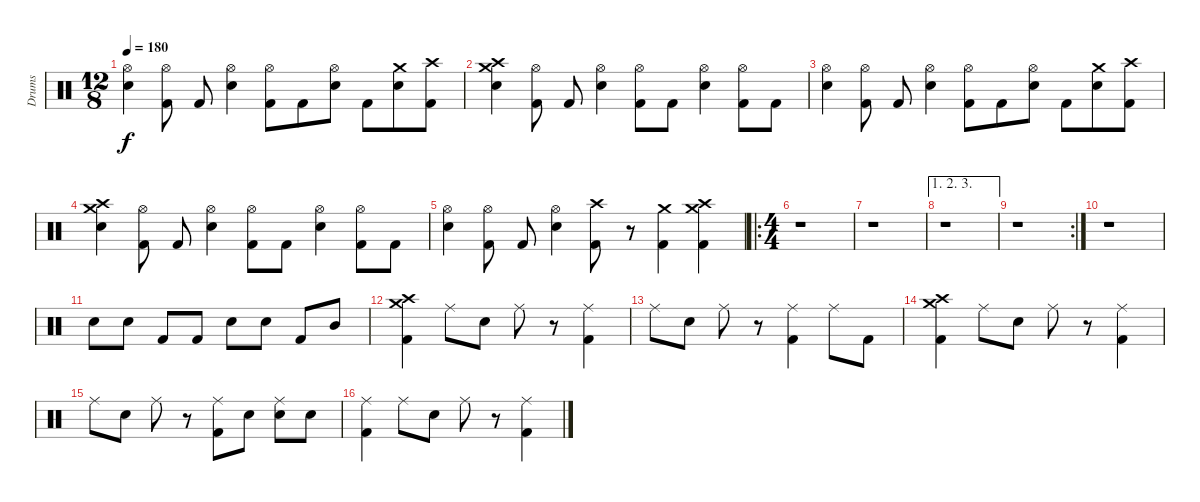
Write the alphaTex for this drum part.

\track ("Drums" "Drums") {instrument percussion}
\staff {score}
\articulation defaults
\ts (12 8)
\tempo 180
\clef neutral
\ks c
("Hi-Hat (open)" "Electric Snare (hit)").4{dy f} ("Hi-Hat (open)" "Kick (hit) 2").8 "Kick (hit) 2".8 ("Hi-Hat (open)" "Electric Snare (hit)").4 ("Hi-Hat (open)" "Kick (hit) 2").8 "Kick (hit) 2".8 ("Hi-Hat (open)" "Electric Snare (hit)").8 "Kick (hit) 2".8 ("Crash medium (hit)" "Electric Snare (hit)").8 ("Crash high (hit)" "Kick (hit) 2").8 |
("Crash high (hit)" "Crash medium (hit)" "Electric Snare (hit)").4 ("Hi-Hat (open)" "Kick (hit) 2").8 "Kick (hit) 2".8 ("Hi-Hat (open)" "Electric Snare (hit)").4 ("Hi-Hat (open)" "Kick (hit) 2").8 "Kick (hit) 2".8 ("Hi-Hat (open)" "Electric Snare (hit)").4 ("Hi-Hat (open)" "Kick (hit) 2").8 "Kick (hit) 2".8 |
("Hi-Hat (open)" "Electric Snare (hit)").4 ("Hi-Hat (open)" "Kick (hit) 2").8 "Kick (hit) 2".8 ("Hi-Hat (open)" "Electric Snare (hit)").4 ("Hi-Hat (open)" "Kick (hit) 2").8 "Kick (hit) 2".8 ("Hi-Hat (open)" "Electric Snare (hit)").8 "Kick (hit) 2".8 ("Crash medium (hit)" "Electric Snare (hit)").8 ("Crash high (hit)" "Kick (hit) 2").8 |
("Crash high (hit)" "Crash medium (hit)" "Electric Snare (hit)").4 ("Hi-Hat (open)" "Kick (hit) 2").8 "Kick (hit) 2".8 ("Hi-Hat (open)" "Electric Snare (hit)").4 ("Hi-Hat (open)" "Kick (hit) 2").8 "Kick (hit) 2".8 ("Hi-Hat (open)" "Electric Snare (hit)").4 ("Hi-Hat (open)" "Kick (hit) 2").8 "Kick (hit) 2".8 |
("Hi-Hat (open)" "Electric Snare (hit)").4 ("Hi-Hat (open)" "Kick (hit) 2").8 "Kick (hit) 2".8 ("Hi-Hat (open)" "Electric Snare (hit)").4 ("Crash high (hit)" "Kick (hit) 2").8 r.8 ("Crash medium (hit)" "Kick (hit) 2").4 ("Crash high (hit)" "Crash medium (hit)" "Kick (hit) 2").4 |
\ro
\ts (4 4)
r.1 |
r.1 |
\ae (1 2 3)
r.1 |
\rc 2
r.1 |
r.1 |
"Electric Snare (hit)".8 "Electric Snare (hit)".8 "Kick (hit) 2".8 "Kick (hit) 2".8 "Electric Snare (hit)".8 "Electric Snare (hit)".8 "Kick (hit) 2".8 "Mid Tom (hit)".8 |
("Crash high (hit)" "Crash medium (hit)" "Kick (hit) 2").4 "Ride (middle)".8 "Electric Snare (hit)".8 "Ride (middle)".8 r.8 ("Ride (middle)" "Kick (hit) 2").4 |
"Ride (middle)".8 "Electric Snare (hit)".8 "Ride (middle)".8 r.8 ("Ride (middle)" "Kick (hit) 2").4 "Ride (middle)".8 "Kick (hit) 2".8 |
("Crash high (hit)" "Crash medium (hit)" "Kick (hit) 2").4 "Ride (middle)".8 "Electric Snare (hit)".8 "Ride (middle)".8 r.8 ("Ride (middle)" "Kick (hit) 2").4 |
"Ride (middle)".8 "Electric Snare (hit)".8 "Ride (middle)".8 r.8 ("Ride (middle)" "Kick (hit) 2").8 "Electric Snare (hit)".8 ("Ride (middle)" "Electric Snare (hit)").8 "Electric Snare (hit)".8 |
("Ride (middle)" "Kick (hit) 2").4 "Ride (middle)".8 "Electric Snare (hit)".8 "Ride (middle)".8 r.8 ("Ride (middle)" "Kick (hit) 2").4
